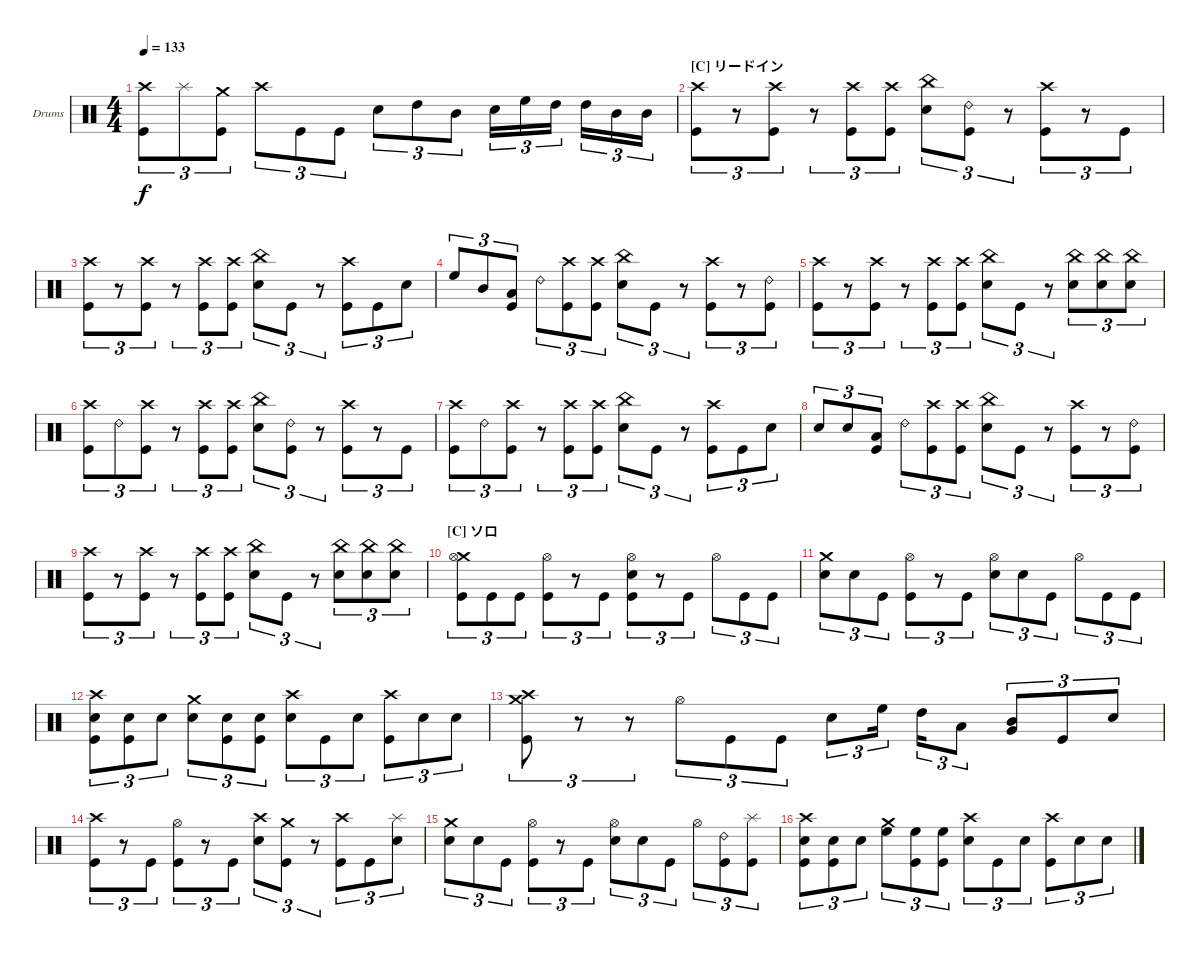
\bracketExtendMode groupsimilarinstruments
\firstSystemTrackNameOrientation horizontal
\otherSystemsTrackNameOrientation horizontal
\track ("Ben Kazenoff" "Drums") {instrument percussion}
\staff {score}
\articulation defaults
\ts (4 4)
\tempo 133
\clef neutral
\ks c
("Crash high (hit)" "Kick (hit)").8{tu (3 2) dy f} "Splash (hit)".8{tu (3 2)} ("Crash medium (hit)" "Kick (hit)").8{tu (3 2)} "Crash high (hit)".8{tu (3 2)} "Kick (hit)".8{tu (3 2)} "Kick (hit)".8{tu (3 2)} "Snare (hit) 2".8{tu (3 2)} "High Tom (hit)".8{tu (3 2)} "Mid Tom (hit)".8{tu (3 2)} "Snare (hit) 2".16{tu (3 2)} "High Floor Tom (hit)".16{tu (3 2)} "High Tom (hit)".16{tu (3 2)} "High Tom (hit)".16{tu (3 2)} "Mid Tom (hit)".16{tu (3 2)} "Mid Tom (hit)".16{tu (3 2)} |
\section ("C" "リードイン")
("Crash high (hit)" "Kick (hit)").8{tu (3 2)} r.8{tu (3 2)} ("Kick (hit)" "Crash high (hit)").8{tu (3 2)} r.8{tu (3 2)} ("Crash high (hit)" "Kick (hit)").8{tu (3 2)} ("Crash high (hit)" "Kick (hit)").8{tu (3 2)} ("China (hit)" "Snare (hit) 2").8{tu (3 2)} ("Ride (bell) 2" "Kick (hit)").8{tu (3 2)} r.8{tu (3 2)} ("Crash high (hit)" "Kick (hit)").8{tu (3 2)} r.8{tu (3 2)} "Kick (hit)".8{tu (3 2)} |
("Crash high (hit)" "Kick (hit)").8{tu (3 2)} r.8{tu (3 2)} ("Crash high (hit)" "Kick (hit)").8{tu (3 2)} r.8{tu (3 2)} ("Crash high (hit)" "Kick (hit)").8{tu (3 2)} ("Crash high (hit)" "Kick (hit)").8{tu (3 2)} ("China (hit)" "Snare (hit) 2").8{tu (3 2)} "Kick (hit)".8{tu (3 2)} r.8{tu (3 2)} ("Crash high (hit)" "Kick (hit)").8{tu (3 2)} "Kick (hit)".8{tu (3 2)} "Snare (hit) 2".8{tu (3 2)} |
"High Floor Tom (hit)".8{tu (3 2)} "Mid Tom (hit)".8{tu (3 2)} ("Low Tom (hit)" "Kick (hit)").8{tu (3 2)} "Ride (bell) 2".8{tu (3 2)} ("Crash high (hit)" "Kick (hit)").8{tu (3 2)} ("Crash high (hit)" "Kick (hit)").8{tu (3 2)} ("China (hit)" "Snare (hit) 2").8{tu (3 2)} "Kick (hit)".8{tu (3 2)} r.8{tu (3 2)} ("Crash high (hit)" "Kick (hit)").8{tu (3 2)} r.8{tu (3 2)} ("Kick (hit)" "Ride (bell) 2").8{tu (3 2)} |
("Crash high (hit)" "Kick (hit)").8{tu (3 2)} r.8{tu (3 2)} ("Crash high (hit)" "Kick (hit)").8{tu (3 2)} r.8{tu (3 2)} ("Crash high (hit)" "Kick (hit)").8{tu (3 2)} ("Crash high (hit)" "Kick (hit)").8{tu (3 2)} ("China (hit)" "Snare (hit) 2").8{tu (3 2)} "Kick (hit)".8{tu (3 2)} r.8{tu (3 2)} ("China (hit)" "Snare (hit) 2").8{tu (3 2)} ("China (hit)" "Snare (hit) 2").8{tu (3 2)} ("China (hit)" "Snare (hit) 2").8{tu (3 2)} |
("Crash high (hit)" "Kick (hit)").8{tu (3 2)} "Ride (bell) 2".8{tu (3 2)} ("Kick (hit)" "Crash high (hit)").8{tu (3 2)} r.8{tu (3 2)} ("Crash high (hit)" "Kick (hit)").8{tu (3 2)} ("Crash high (hit)" "Kick (hit)").8{tu (3 2)} ("China (hit)" "Snare (hit) 2").8{tu (3 2)} ("Ride (bell) 2" "Kick (hit)").8{tu (3 2)} r.8{tu (3 2)} ("Crash high (hit)" "Kick (hit)").8{tu (3 2)} r.8{tu (3 2)} "Kick (hit)".8{tu (3 2)} |
("Crash high (hit)" "Kick (hit)").8{tu (3 2)} "Ride (bell) 2".8{tu (3 2)} ("Crash high (hit)" "Kick (hit)").8{tu (3 2)} r.8{tu (3 2)} ("Crash high (hit)" "Kick (hit)").8{tu (3 2)} ("Crash high (hit)" "Kick (hit)").8{tu (3 2)} ("China (hit)" "Snare (hit) 2").8{tu (3 2)} "Kick (hit)".8{tu (3 2)} r.8{tu (3 2)} ("Crash high (hit)" "Kick (hit)").8{tu (3 2)} "Kick (hit)".8{tu (3 2)} "Snare (hit) 2".8{tu (3 2)} |
"Snare (hit) 2".8{tu (3 2)} "Snare (hit) 2".8{tu (3 2)} ("Low Tom (hit)" "Kick (hit)").8{tu (3 2)} "Ride (bell) 2".8{tu (3 2)} ("Crash high (hit)" "Kick (hit)").8{tu (3 2)} ("Crash high (hit)" "Kick (hit)").8{tu (3 2)} ("China (hit)" "Snare (hit) 2").8{tu (3 2)} "Kick (hit)".8{tu (3 2)} r.8{tu (3 2)} ("Crash high (hit)" "Kick (hit)").8{tu (3 2)} r.8{tu (3 2)} ("Kick (hit)" "Ride (bell) 2").8{tu (3 2)} |
("Crash high (hit)" "Kick (hit)").8{tu (3 2)} r.8{tu (3 2)} ("Crash high (hit)" "Kick (hit)").8{tu (3 2)} r.8{tu (3 2)} ("Crash high (hit)" "Kick (hit)").8{tu (3 2)} ("Crash high (hit)" "Kick (hit)").8{tu (3 2)} ("China (hit)" "Snare (hit) 2").8{tu (3 2)} "Kick (hit)".8{tu (3 2)} r.8{tu (3 2)} ("China (hit)" "Snare (hit) 2").8{tu (3 2)} ("China (hit)" "Snare (hit) 2").8{tu (3 2)} ("China (hit)" "Snare (hit) 2").8{tu (3 2)} |
\section ("C" "ソロ")
("Kick (hit)" "Crash medium (hit)" "Hi-Hat (open)").8{tu (3 2)} "Kick (hit)".8{tu (3 2)} "Kick (hit)".8{tu (3 2)} ("Kick (hit)" "Hi-Hat (open)").8{tu (3 2)} r.8{tu (3 2)} "Kick (hit)".8{tu (3 2)} ("Kick (hit)" "Snare (hit) 2" "Hi-Hat (open)").8{tu (3 2)} r.8{tu (3 2)} "Kick (hit)".8{tu (3 2)} "Hi-Hat (open)".8{tu (3 2)} "Kick (hit)".8{tu (3 2)} "Kick (hit)".8{tu (3 2)} |
("Crash medium (hit)" "Snare (hit) 2").8{tu (3 2)} "Snare (hit) 2".8{tu (3 2)} "Kick (hit)".8{tu (3 2)} ("Kick (hit)" "Hi-Hat (open)").8{tu (3 2)} r.8{tu (3 2)} "Kick (hit)".8{tu (3 2)} ("Snare (hit) 2" "Hi-Hat (open)").8{tu (3 2)} "Snare (hit) 2".8{tu (3 2)} "Kick (hit)".8{tu (3 2)} "Hi-Hat (open)".8{tu (3 2)} "Kick (hit)".8{tu (3 2)} "Kick (hit)".8{tu (3 2)} |
("Crash high (hit)" "Snare (hit) 2" "Kick (hit)").8{tu (3 2)} ("Snare (hit) 2" "Kick (hit)").8{tu (3 2)} "Snare (hit) 2".8{tu (3 2)} ("Crash medium (hit)" "Snare (hit) 2").8{tu (3 2)} ("Snare (hit) 2" "Kick (hit)").8{tu (3 2)} ("Snare (hit) 2" "Kick (hit)").8{tu (3 2)} ("Crash high (hit)" "Snare (hit) 2").8{tu (3 2)} "Kick (hit)".8{tu (3 2)} "Snare (hit) 2".8{tu (3 2)} ("Crash high (hit)" "Kick (hit)").8{tu (3 2)} "Snare (hit) 2".8{tu (3 2)} "Snare (hit) 2".8{tu (3 2)} |
("Kick (hit)" "Crash medium (hit)" "Crash high (hit)").8{tu (3 2)} r.8{tu (3 2)} r.8{tu (3 2)} "Hi-Hat (open)".8{tu (3 2)} "Kick (hit)".8{tu (3 2)} "Kick (hit)".8{tu (3 2)} "Snare (hit) 2".8{tu (3 2)} "High Floor Tom (hit)".16{tu (3 2)} "High Tom (hit)".16{tu (3 2)} "Low Tom (hit)".8{tu (3 2)} ("Very Low Tom (hit)" "Mid Tom (hit)").8{tu (3 2)} "Kick (hit)".8{tu (3 2)} "Snare (hit) 2".8{tu (3 2)} |
("Crash high (hit)" "Kick (hit)").8{tu (3 2)} r.8{tu (3 2)} "Kick (hit)".8{tu (3 2)} ("Hi-Hat (open)" "Kick (hit)").8{tu (3 2)} r.8{tu (3 2)} "Kick (hit)".8{tu (3 2)} ("Crash high (hit)" "Snare (hit) 2").8{tu (3 2)} ("Crash medium (hit)" "Kick (hit)").8{tu (3 2)} r.8{tu (3 2)} ("Crash high (hit)" "Kick (hit)").8{tu (3 2)} "Kick (hit)".8{tu (3 2)} ("Splash (hit)" "Snare (hit) 2").8{tu (3 2)} |
("Crash medium (hit)" "Snare (hit) 2").8{tu (3 2)} "Snare (hit) 2".8{tu (3 2)} "Kick (hit)".8{tu (3 2)} ("Kick (hit)" "Hi-Hat (open)").8{tu (3 2)} r.8{tu (3 2)} "Kick (hit)".8{tu (3 2)} ("Snare (hit) 2" "Hi-Hat (open)").8{tu (3 2)} "Snare (hit) 2".8{tu (3 2)} "Kick (hit)".8{tu (3 2)} "Hi-Hat (open)".8{tu (3 2)} ("Kick (hit)" "Ride (bell) 2").8{tu (3 2)} ("Kick (hit)" "Splash (hit)").8{tu (3 2)} |
("Crash high (hit)" "Snare (hit) 2" "Kick (hit)").8{tu (3 2)} ("Snare (hit) 2" "Kick (hit)").8{tu (3 2)} "Snare (hit) 2".8{tu (3 2)} ("Crash medium (hit)" "High Floor Tom (hit)").8{tu (3 2)} ("High Floor Tom (hit)" "Kick (hit)").8{tu (3 2)} ("High Floor Tom (hit)" "Kick (hit)").8{tu (3 2)} ("Crash high (hit)" "Snare (hit) 2").8{tu (3 2)} "Kick (hit)".8{tu (3 2)} "Snare (hit) 2".8{tu (3 2)} ("Crash high (hit)" "Kick (hit)").8{tu (3 2)} "Snare (hit) 2".8{tu (3 2)} "Snare (hit) 2".8{tu (3 2)}
